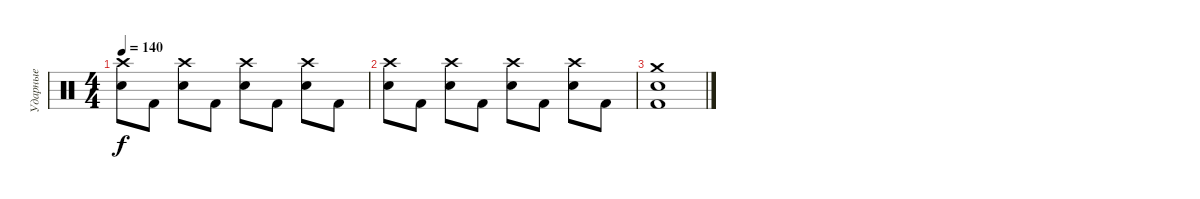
\track ("Ударные" "Ударные") {instrument percussion}
\staff {score}
\articulation defaults
\ts (4 4)
\tempo 140
\clef neutral
\ks c
("Crash high (hit)" "Electric Snare (hit)").8{dy f} "Kick (hit) 2".8 ("Crash high (hit)" "Electric Snare (hit)").8 "Kick (hit) 2".8 ("Crash high (hit)" "Electric Snare (hit)").8 "Kick (hit) 2".8 ("Crash high (hit)" "Electric Snare (hit)").8 "Kick (hit) 2".8 |
("Crash high (hit)" "Electric Snare (hit)").8 "Kick (hit) 2".8 ("Crash high (hit)" "Electric Snare (hit)").8 "Kick (hit) 2".8 ("Crash high (hit)" "Electric Snare (hit)").8 "Kick (hit) 2".8 ("Crash high (hit)" "Electric Snare (hit)").8 "Kick (hit) 2".8 |
("Crash medium (hit)" "Electric Snare (hit)" "Kick (hit) 2").1
